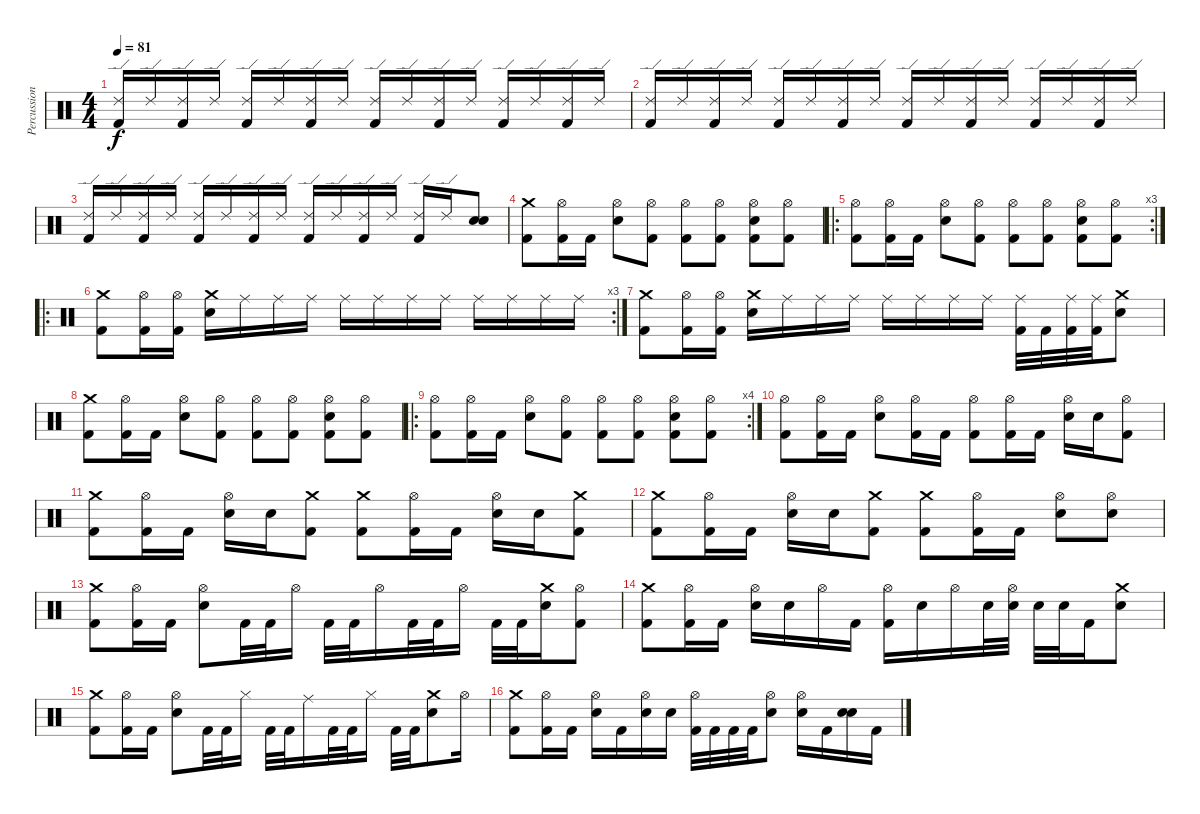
\track ("Percussion" "Percussion") {instrument percussion}
\staff {score}
\articulation defaults
\ts (4 4)
\tempo 81
\clef neutral
\ks c
("Ride (edge) 2" "Kick (hit) 2").16{dy f} "Ride (edge) 2".16 ("Ride (edge) 2" "Kick (hit) 2").16 "Ride (edge) 2".16 ("Ride (edge) 2" "Kick (hit) 2").16 "Ride (edge) 2".16 ("Ride (edge) 2" "Kick (hit) 2").16 "Ride (edge) 2".16 ("Ride (edge) 2" "Kick (hit) 2").16 "Ride (edge) 2".16 ("Ride (edge) 2" "Kick (hit) 2").16 "Ride (edge) 2".16 ("Ride (edge) 2" "Kick (hit) 2").16 "Ride (edge) 2".16 ("Ride (edge) 2" "Kick (hit) 2").16 "Ride (edge) 2".16 |
("Ride (edge) 2" "Kick (hit) 2").16 "Ride (edge) 2".16 ("Ride (edge) 2" "Kick (hit) 2").16 "Ride (edge) 2".16 ("Ride (edge) 2" "Kick (hit) 2").16 "Ride (edge) 2".16 ("Ride (edge) 2" "Kick (hit) 2").16 "Ride (edge) 2".16 ("Ride (edge) 2" "Kick (hit) 2").16 "Ride (edge) 2".16 ("Ride (edge) 2" "Kick (hit) 2").16 "Ride (edge) 2".16 ("Ride (edge) 2" "Kick (hit) 2").16 "Ride (edge) 2".16 ("Ride (edge) 2" "Kick (hit) 2").16 "Ride (edge) 2".16 |
("Ride (edge) 2" "Kick (hit) 2").16 "Ride (edge) 2".16 ("Ride (edge) 2" "Kick (hit) 2").16 "Ride (edge) 2".16 ("Ride (edge) 2" "Kick (hit) 2").16 "Ride (edge) 2".16 ("Ride (edge) 2" "Kick (hit) 2").16 "Ride (edge) 2".16 ("Ride (edge) 2" "Kick (hit) 2").16 "Ride (edge) 2".16 ("Ride (edge) 2" "Kick (hit) 2").16 "Ride (edge) 2".16 ("Ride (edge) 2" "Kick (hit) 2").16 "Ride (edge) 2".16 ("Electric Snare (hit)" "Electric Snare (hit)").8 |
("Crash medium (hit)" "Kick (hit) 2").8 ("Hi-Hat (open)" "Kick (hit) 2").16 "Kick (hit) 2".16 ("Hi-Hat (open)" "Electric Snare (hit)").8 ("Hi-Hat (open)" "Kick (hit) 2").8 ("Hi-Hat (open)" "Kick (hit) 2").8 ("Hi-Hat (open)" "Kick (hit) 2").8 ("Hi-Hat (open)" "Electric Snare (hit)" "Kick (hit) 2").8 ("Hi-Hat (open)" "Kick (hit) 2").8 |
\ro
\rc 3
("Hi-Hat (open)" "Kick (hit) 2").8 ("Hi-Hat (open)" "Kick (hit) 2").16 "Kick (hit) 2".16 ("Hi-Hat (open)" "Electric Snare (hit)").8 ("Hi-Hat (open)" "Kick (hit) 2").8 ("Hi-Hat (open)" "Kick (hit) 2").8 ("Hi-Hat (open)" "Kick (hit) 2").8 ("Hi-Hat (open)" "Electric Snare (hit)" "Kick (hit) 2").8 ("Hi-Hat (open)" "Kick (hit) 2").8 |
\ro
\rc 3
("Crash medium (hit)" "Kick (hit) 2").8 ("Hi-Hat (open)" "Kick (hit) 2").16 ("Hi-Hat (open)" "Kick (hit) 2").16 ("Crash medium (hit)" "Electric Snare (hit)").16 "Ride (middle)".16 "Ride (middle)".16 "Ride (middle)".16 "Ride (middle)".16 "Ride (middle)".16 "Ride (middle)".16 "Ride (middle)".16 "Ride (middle)".16 "Ride (middle)".16 "Ride (middle)".16 "Ride (middle)".16 |
("Crash medium (hit)" "Kick (hit) 2").8 ("Hi-Hat (open)" "Kick (hit) 2").16 ("Hi-Hat (open)" "Kick (hit) 2").16 ("Crash medium (hit)" "Electric Snare (hit)").16 "Ride (middle)".16 "Ride (middle)".16 "Ride (middle)".16 "Ride (middle)".16 "Ride (middle)".16 "Ride (middle)".16 "Ride (middle)".16 ("Ride (middle)" "Kick (hit) 2").32 "Kick (hit) 2".32 ("Ride (middle)" "Kick (hit) 2").32 ("Ride (middle)" "Kick (hit) 2").32 ("Crash medium (hit)" "Electric Snare (hit)").8 |
("Crash medium (hit)" "Kick (hit) 2").8 ("Hi-Hat (open)" "Kick (hit) 2").16 "Kick (hit) 2".16 ("Hi-Hat (open)" "Electric Snare (hit)").8 ("Hi-Hat (open)" "Kick (hit) 2").8 ("Hi-Hat (open)" "Kick (hit) 2").8 ("Hi-Hat (open)" "Kick (hit) 2").8 ("Hi-Hat (open)" "Electric Snare (hit)" "Kick (hit) 2").8 ("Hi-Hat (open)" "Kick (hit) 2").8 |
\ro
\rc 4
("Hi-Hat (open)" "Kick (hit) 2").8 ("Hi-Hat (open)" "Kick (hit) 2").16 "Kick (hit) 2".16 ("Hi-Hat (open)" "Electric Snare (hit)").8 ("Hi-Hat (open)" "Kick (hit) 2").8 ("Hi-Hat (open)" "Kick (hit) 2").8 ("Hi-Hat (open)" "Kick (hit) 2").8 ("Hi-Hat (open)" "Electric Snare (hit)" "Kick (hit) 2").8 ("Hi-Hat (open)" "Kick (hit) 2").8 |
("Hi-Hat (open)" "Kick (hit) 2").8 ("Hi-Hat (open)" "Kick (hit) 2").16 "Kick (hit) 2".16 ("Hi-Hat (open)" "Electric Snare (hit)").8 ("Hi-Hat (open)" "Kick (hit) 2").16 "Kick (hit) 2".16 ("Hi-Hat (open)" "Kick (hit) 2").8 ("Hi-Hat (open)" "Kick (hit) 2").16 "Kick (hit) 2".16 ("Hi-Hat (open)" "Electric Snare (hit)").16 "Electric Snare (hit)".16 ("Hi-Hat (open)" "Kick (hit) 2").8 |
("Crash medium (hit)" "Kick (hit) 2").8 ("Hi-Hat (open)" "Kick (hit) 2").16 "Kick (hit) 2".16 ("Electric Snare (hit)" "Hi-Hat (open)").16 "Electric Snare (hit)".16 ("Crash medium (hit)" "Kick (hit) 2").8 ("Crash medium (hit)" "Kick (hit) 2").8 ("Hi-Hat (open)" "Kick (hit) 2").16 "Kick (hit) 2".16 ("Hi-Hat (open)" "Electric Snare (hit)").16 "Electric Snare (hit)".16 ("Crash medium (hit)" "Kick (hit) 2").8 |
("Crash medium (hit)" "Kick (hit) 2").8 ("Hi-Hat (open)" "Kick (hit) 2").16 "Kick (hit) 2".16 ("Hi-Hat (open)" "Electric Snare (hit)").16 "Electric Snare (hit)".16 ("Crash medium (hit)" "Kick (hit) 2").8 ("Crash medium (hit)" "Kick (hit) 2").8 ("Hi-Hat (open)" "Kick (hit) 2").16 "Kick (hit) 2".16 ("Hi-Hat (open)" "Electric Snare (hit)").8 ("Hi-Hat (open)" "Electric Snare (hit)").8 |
("Crash medium (hit)" "Kick (hit) 2").8 ("Hi-Hat (open)" "Kick (hit) 2").16 "Kick (hit) 2".16 ("Hi-Hat (open)" "Electric Snare (hit)").8 "Kick (hit) 2".32 "Kick (hit) 2".32 "Hi-Hat (open)".16 "Kick (hit) 2".32 "Kick (hit) 2".32 "Hi-Hat (open)".16 "Kick (hit) 2".32 "Kick (hit) 2".32 "Hi-Hat (open)".16 "Kick (hit) 2".32 "Kick (hit) 2".32 ("Crash medium (hit)" "Electric Snare (hit)").16 ("Hi-Hat (open)" "Kick (hit) 2").8 |
("Crash medium (hit)" "Kick (hit) 2").8 ("Hi-Hat (open)" "Kick (hit) 2").16 "Kick (hit) 2".16 ("Hi-Hat (open)" "Electric Snare (hit)").16 "Electric Snare (hit)".16 "Hi-Hat (open)".16 "Kick (hit) 2".16 ("Hi-Hat (open)" "Kick (hit) 2").16 "Electric Snare (hit)".16 "Hi-Hat (open)".16 "Electric Snare (hit)".32 ("Hi-Hat (open)" "Electric Snare (hit)").32 "Electric Snare (hit)".32 "Electric Snare (hit)".32 "Kick (hit) 2".16 ("Crash medium (hit)" "Electric Snare (hit)").8 |
("Crash medium (hit)" "Kick (hit) 2").8 ("Hi-Hat (open)" "Kick (hit) 2").16 "Kick (hit) 2".16 ("Hi-Hat (open)" "Electric Snare (hit)").8 "Kick (hit) 2".32 "Kick (hit) 2".32 "Hi-Hat (closed)".16 "Kick (hit) 2".32 "Kick (hit) 2".32 "Ride (middle)".16 "Kick (hit) 2".32 "Kick (hit) 2".32 "Hi-Hat (closed)".16 "Kick (hit) 2".32 "Kick (hit) 2".32 ("Crash medium (hit)" "Electric Snare (hit)").8 "Hi-Hat (open)".16 |
("Crash medium (hit)" "Kick (hit) 2").8 ("Hi-Hat (open)" "Kick (hit) 2").16 "Kick (hit) 2".16 ("Hi-Hat (open)" "Electric Snare (hit)").16 "Kick (hit) 2".16 ("Hi-Hat (open)" "Electric Snare (hit)").16 "Electric Snare (hit)".16 ("Hi-Hat (open)" "Kick (hit) 2").32 "Kick (hit) 2".32 "Kick (hit) 2".32 "Kick (hit) 2".32 ("Hi-Hat (open)" "Electric Snare (hit)").8 ("Hi-Hat (open)" "Electric Snare (hit)").16 "Kick (hit) 2".16 ("Electric Snare (hit)" "Electric Snare (hit)").16 "Kick (hit) 2".16
